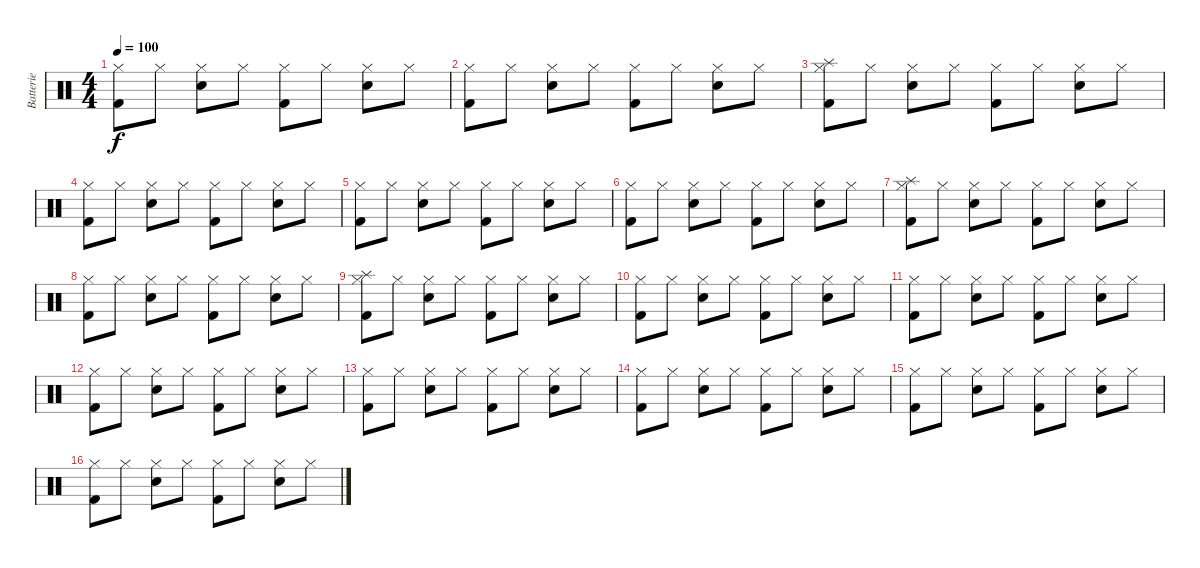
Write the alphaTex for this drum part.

\track ("Batterie" "Batterie") {instrument percussion}
\staff {score}
\articulation defaults
\ts (4 4)
\tempo 100
\clef neutral
\ks c
("Hi-Hat (closed)" "Kick (hit) 2").8{dy f} "Hi-Hat (closed)".8 ("Hi-Hat (closed)" "Snare (hit) 2").8 "Hi-Hat (closed)".8 ("Hi-Hat (closed)" "Kick (hit) 2").8 "Hi-Hat (closed)".8 ("Hi-Hat (closed)" "Snare (hit) 2").8 "Hi-Hat (closed)".8 |
("Hi-Hat (closed)" "Kick (hit) 2").8 "Hi-Hat (closed)".8 ("Hi-Hat (closed)" "Snare (hit) 2").8 "Hi-Hat (closed)".8 ("Hi-Hat (closed)" "Kick (hit) 2").8 "Hi-Hat (closed)".8 ("Hi-Hat (closed)" "Snare (hit) 2").8 "Hi-Hat (closed)".8 |
("Splash (hit)" "Hi-Hat (closed)" "Kick (hit) 2").8 "Hi-Hat (closed)".8 ("Hi-Hat (closed)" "Snare (hit) 2").8 "Hi-Hat (closed)".8 ("Hi-Hat (closed)" "Kick (hit) 2").8 "Hi-Hat (closed)".8 ("Hi-Hat (closed)" "Snare (hit) 2").8 "Hi-Hat (closed)".8 |
("Hi-Hat (closed)" "Kick (hit) 2").8 "Hi-Hat (closed)".8 ("Hi-Hat (closed)" "Snare (hit) 2").8 "Hi-Hat (closed)".8 ("Hi-Hat (closed)" "Kick (hit) 2").8 "Hi-Hat (closed)".8 ("Hi-Hat (closed)" "Snare (hit) 2").8 "Hi-Hat (closed)".8 |
("Hi-Hat (closed)" "Kick (hit) 2").8 "Hi-Hat (closed)".8 ("Hi-Hat (closed)" "Snare (hit) 2").8 "Hi-Hat (closed)".8 ("Hi-Hat (closed)" "Kick (hit) 2").8 "Hi-Hat (closed)".8 ("Hi-Hat (closed)" "Snare (hit) 2").8 "Hi-Hat (closed)".8 |
("Hi-Hat (closed)" "Kick (hit) 2").8 "Hi-Hat (closed)".8 ("Hi-Hat (closed)" "Snare (hit) 2").8 "Hi-Hat (closed)".8 ("Hi-Hat (closed)" "Kick (hit) 2").8 "Hi-Hat (closed)".8 ("Hi-Hat (closed)" "Snare (hit) 2").8 "Hi-Hat (closed)".8 |
("Splash (hit)" "Hi-Hat (closed)" "Kick (hit) 2").8 "Hi-Hat (closed)".8 ("Hi-Hat (closed)" "Snare (hit) 2").8 "Hi-Hat (closed)".8 ("Hi-Hat (closed)" "Kick (hit) 2").8 "Hi-Hat (closed)".8 ("Hi-Hat (closed)" "Snare (hit) 2").8 "Hi-Hat (closed)".8 |
("Hi-Hat (closed)" "Kick (hit) 2").8 "Hi-Hat (closed)".8 ("Hi-Hat (closed)" "Snare (hit) 2").8 "Hi-Hat (closed)".8 ("Hi-Hat (closed)" "Kick (hit) 2").8 "Hi-Hat (closed)".8 ("Hi-Hat (closed)" "Snare (hit) 2").8 "Hi-Hat (closed)".8 |
("Splash (hit)" "Hi-Hat (closed)" "Kick (hit) 2").8 "Hi-Hat (closed)".8 ("Hi-Hat (closed)" "Snare (hit) 2").8 "Hi-Hat (closed)".8 ("Hi-Hat (closed)" "Kick (hit) 2").8 "Hi-Hat (closed)".8 ("Hi-Hat (closed)" "Snare (hit) 2").8 "Hi-Hat (closed)".8 |
("Hi-Hat (closed)" "Kick (hit) 2").8 "Hi-Hat (closed)".8 ("Hi-Hat (closed)" "Snare (hit) 2").8 "Hi-Hat (closed)".8 ("Hi-Hat (closed)" "Kick (hit) 2").8 "Hi-Hat (closed)".8 ("Hi-Hat (closed)" "Snare (hit) 2").8 "Hi-Hat (closed)".8 |
("Hi-Hat (closed)" "Kick (hit) 2").8 "Hi-Hat (closed)".8 ("Hi-Hat (closed)" "Snare (hit) 2").8 "Hi-Hat (closed)".8 ("Hi-Hat (closed)" "Kick (hit) 2").8 "Hi-Hat (closed)".8 ("Hi-Hat (closed)" "Snare (hit) 2").8 "Hi-Hat (closed)".8 |
("Hi-Hat (closed)" "Kick (hit) 2").8 "Hi-Hat (closed)".8 ("Hi-Hat (closed)" "Snare (hit) 2").8 "Hi-Hat (closed)".8 ("Hi-Hat (closed)" "Kick (hit) 2").8 "Hi-Hat (closed)".8 ("Hi-Hat (closed)" "Snare (hit) 2").8 "Hi-Hat (closed)".8 |
("Hi-Hat (closed)" "Kick (hit) 2").8 "Hi-Hat (closed)".8 ("Hi-Hat (closed)" "Snare (hit) 2").8 "Hi-Hat (closed)".8 ("Hi-Hat (closed)" "Kick (hit) 2").8 "Hi-Hat (closed)".8 ("Hi-Hat (closed)" "Snare (hit) 2").8 "Hi-Hat (closed)".8 |
("Hi-Hat (closed)" "Kick (hit) 2").8 "Hi-Hat (closed)".8 ("Hi-Hat (closed)" "Snare (hit) 2").8 "Hi-Hat (closed)".8 ("Hi-Hat (closed)" "Kick (hit) 2").8 "Hi-Hat (closed)".8 ("Hi-Hat (closed)" "Snare (hit) 2").8 "Hi-Hat (closed)".8 |
("Hi-Hat (closed)" "Kick (hit) 2").8 "Hi-Hat (closed)".8 ("Hi-Hat (closed)" "Snare (hit) 2").8 "Hi-Hat (closed)".8 ("Hi-Hat (closed)" "Kick (hit) 2").8 "Hi-Hat (closed)".8 ("Hi-Hat (closed)" "Snare (hit) 2").8 "Hi-Hat (closed)".8 |
("Hi-Hat (closed)" "Kick (hit) 2").8 "Hi-Hat (closed)".8 ("Hi-Hat (closed)" "Snare (hit) 2").8 "Hi-Hat (closed)".8 ("Hi-Hat (closed)" "Kick (hit) 2").8 "Hi-Hat (closed)".8 ("Hi-Hat (closed)" "Snare (hit) 2").8 "Hi-Hat (closed)".8
